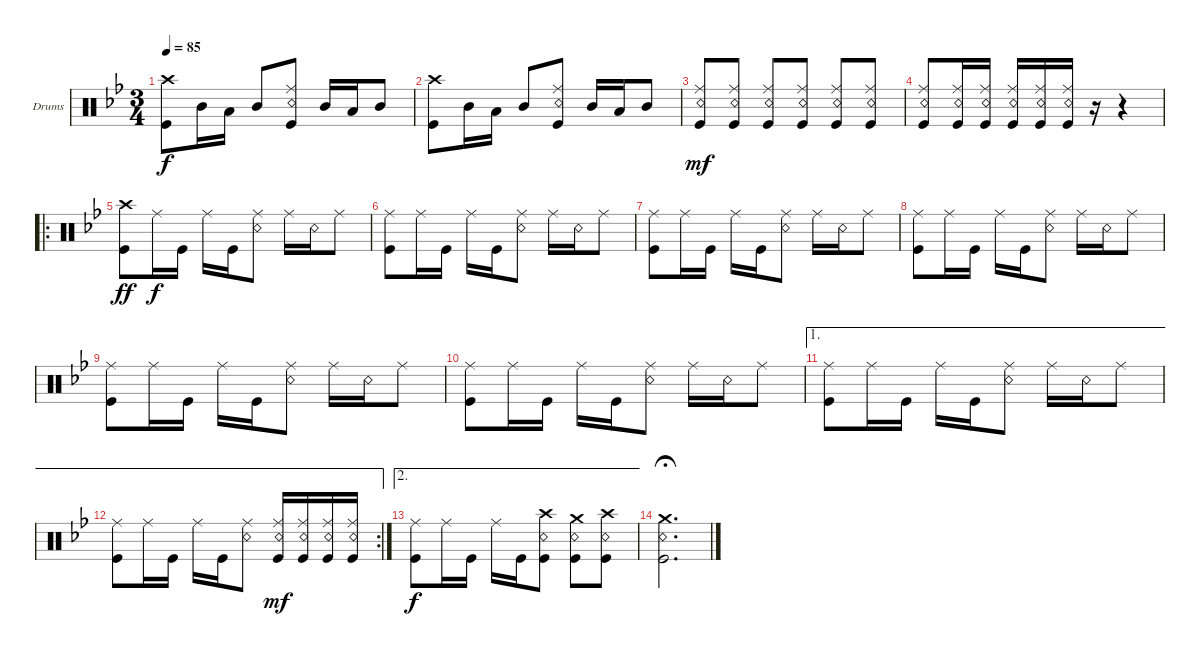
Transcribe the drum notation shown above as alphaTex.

\bracketExtendMode groupsimilarinstruments
\firstSystemTrackNameOrientation horizontal
\otherSystemsTrackNameOrientation horizontal
\track ("Drums" "Drums") {instrument percussion}
\staff {score}
\articulation defaults
\ts (3 4)
\tempo 85
\clef neutral
\ks bb
("Kick (hit)" "Crash high (hit)").8{dy f} "Mid Tom (hit)".16 "Low Tom (hit)".16 "Mid Tom (hit)".8 ("Ride (middle)" "Snare (rim shot)" "Kick (hit)").8 "Mid Tom (hit)".16 "Low Tom (hit)".16 "Mid Tom (hit)".8 |
("Kick (hit)" "Crash high (hit)").8 "Mid Tom (hit)".16 "Low Tom (hit)".16 "Mid Tom (hit)".8 ("Ride (middle)" "Snare (rim shot)" "Kick (hit)").8 "Mid Tom (hit)".16 "Low Tom (hit)".16 "Mid Tom (hit)".8 |
("Kick (hit)" "Snare (rim shot)" "Ride (middle)").8{dy mf} ("Kick (hit)" "Snare (rim shot)" "Ride (middle)").8 ("Kick (hit)" "Snare (rim shot)" "Ride (middle)").8 ("Kick (hit)" "Snare (rim shot)" "Ride (middle)").8 ("Kick (hit)" "Snare (rim shot)" "Ride (middle)").8 ("Kick (hit)" "Snare (rim shot)" "Ride (middle)").8 |
("Kick (hit)" "Snare (rim shot)" "Ride (middle)").8 ("Kick (hit)" "Snare (rim shot)" "Ride (middle)").16 ("Kick (hit)" "Snare (rim shot)" "Ride (middle)").16 ("Kick (hit)" "Snare (rim shot)" "Ride (middle)").16 ("Kick (hit)" "Snare (rim shot)" "Ride (middle)").16 ("Kick (hit)" "Snare (rim shot)" "Ride (middle)").16 r.16 r.4 |
\ro
("Kick (hit)" "Crash high (hit)").8{dy ff} "Ride (middle)".16{dy f} "Kick (hit)".16 "Ride (middle)".16 "Kick (hit)".16 ("Snare (rim shot)" "Ride (middle)").8 "Ride (middle)".16 "Snare (rim shot)".16 "Ride (middle)".8 |
("Kick (hit)" "Ride (middle)").8 "Ride (middle)".16 "Kick (hit)".16 "Ride (middle)".16 "Kick (hit)".16 ("Snare (rim shot)" "Ride (middle)").8 "Ride (middle)".16 "Snare (rim shot)".16 "Ride (middle)".8 |
("Kick (hit)" "Ride (middle)").8 "Ride (middle)".16 "Kick (hit)".16 "Ride (middle)".16 "Kick (hit)".16 ("Snare (rim shot)" "Ride (middle)").8 "Ride (middle)".16 "Snare (rim shot)".16 "Ride (middle)".8 |
("Kick (hit)" "Ride (middle)").8 "Ride (middle)".16 "Kick (hit)".16 "Ride (middle)".16 "Kick (hit)".16 ("Snare (rim shot)" "Ride (middle)").8 "Ride (middle)".16 "Snare (rim shot)".16 "Ride (middle)".8 |
("Kick (hit)" "Ride (middle)").8 "Ride (middle)".16 "Kick (hit)".16 "Ride (middle)".16 "Kick (hit)".16 ("Snare (rim shot)" "Ride (middle)").8 "Ride (middle)".16 "Snare (rim shot)".16 "Ride (middle)".8 |
("Kick (hit)" "Ride (middle)").8 "Ride (middle)".16 "Kick (hit)".16 "Ride (middle)".16 "Kick (hit)".16 ("Snare (rim shot)" "Ride (middle)").8 "Ride (middle)".16 "Snare (rim shot)".16 "Ride (middle)".8 |
\ae 1
("Kick (hit)" "Ride (middle)").8 "Ride (middle)".16 "Kick (hit)".16 "Ride (middle)".16 "Kick (hit)".16 ("Snare (rim shot)" "Ride (middle)").8 "Ride (middle)".16 "Snare (rim shot)".16 "Ride (middle)".8 |
\ae 1
\rc 2
("Kick (hit)" "Ride (middle)").8 "Ride (middle)".16 "Kick (hit)".16 "Ride (middle)".16 "Kick (hit)".16 ("Snare (rim shot)" "Ride (middle)").8 ("Kick (hit)" "Snare (rim shot)" "Ride (middle)").16{dy mf} ("Kick (hit)" "Snare (rim shot)" "Ride (middle)").16 ("Kick (hit)" "Snare (rim shot)" "Ride (middle)").16 ("Kick (hit)" "Snare (rim shot)" "Ride (middle)").16 |
\ae 2
("Kick (hit)" "Ride (middle)").8{dy f} "Ride (middle)".16 "Kick (hit)".16 "Ride (middle)".16 "Kick (hit)".16 ("Snare (rim shot)" "Kick (hit)" "Crash high (hit)").8 ("Kick (hit)" "Crash medium (hit)" "Snare (rim shot)").8 ("Crash high (hit)" "Snare (rim shot)" "Kick (hit)").8 |
("Kick (hit)" "Snare (rim shot)" "Crash medium (hit)").2{d fermata (medium 1)}
